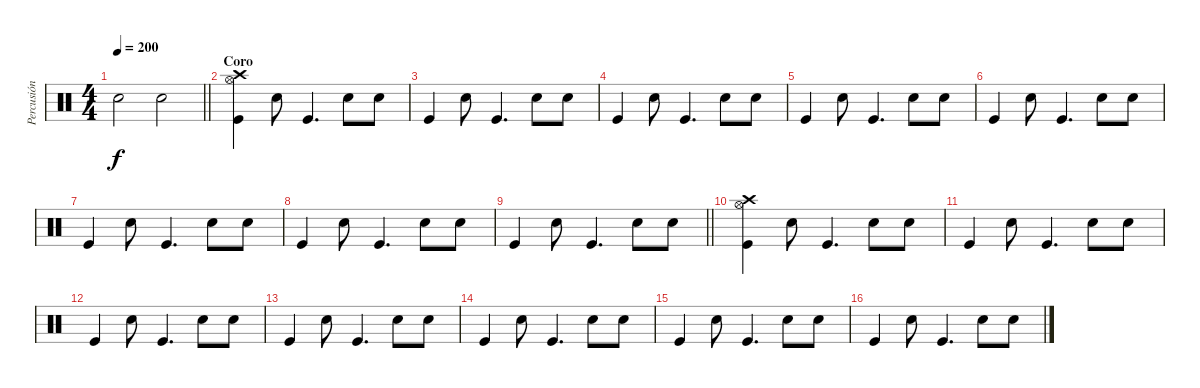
\track ("Percusión" "Percusión") {instrument percussion}
\staff {score}
\articulation defaults
\ts (4 4)
\tempo 200
\clef neutral
\barLineRight lightlight
\ks c "Snare (hit) 2".2{dy f} "Electric Snare (hit)".2
|
\section ("" "Coro")
("Hi-Hat (open)" "Crash high (hit)" "Kick (hit)").4 "Snare (hit) 2".8 "Kick (hit)".4{d} "Snare (hit) 2".8 "Snare (hit) 2".8 |
"Kick (hit)".4 "Snare (hit) 2".8 "Kick (hit)".4{d} "Snare (hit) 2".8 "Snare (hit) 2".8 |
"Kick (hit)".4 "Snare (hit) 2".8 "Kick (hit)".4{d} "Snare (hit) 2".8 "Snare (hit) 2".8 |
"Kick (hit)".4 "Snare (hit) 2".8 "Kick (hit)".4{d} "Snare (hit) 2".8 "Snare (hit) 2".8 |
"Kick (hit)".4 "Snare (hit) 2".8 "Kick (hit)".4{d} "Snare (hit) 2".8 "Snare (hit) 2".8 |
"Kick (hit)".4 "Snare (hit) 2".8 "Kick (hit)".4{d} "Snare (hit) 2".8 "Snare (hit) 2".8 |
"Kick (hit)".4 "Snare (hit) 2".8 "Kick (hit)".4{d} "Snare (hit) 2".8 "Snare (hit) 2".8 |
\barLineRight lightlight "Kick (hit)".4 "Snare (hit) 2".8 "Kick (hit)".4{d} "Snare (hit) 2".8 "Snare (hit) 2".8
|
\section ("" "")
("Hi-Hat (open)" "Crash high (hit)" "Kick (hit)").4 "Snare (hit) 2".8 "Kick (hit)".4{d} "Snare (hit) 2".8 "Snare (hit) 2".8 |
"Kick (hit)".4 "Snare (hit) 2".8 "Kick (hit)".4{d} "Snare (hit) 2".8 "Snare (hit) 2".8 |
"Kick (hit)".4 "Snare (hit) 2".8 "Kick (hit)".4{d} "Snare (hit) 2".8 "Snare (hit) 2".8 |
"Kick (hit)".4 "Snare (hit) 2".8 "Kick (hit)".4{d} "Snare (hit) 2".8 "Snare (hit) 2".8 |
"Kick (hit)".4 "Snare (hit) 2".8 "Kick (hit)".4{d} "Snare (hit) 2".8 "Snare (hit) 2".8 |
"Kick (hit)".4 "Snare (hit) 2".8 "Kick (hit)".4{d} "Snare (hit) 2".8 "Snare (hit) 2".8 |
"Kick (hit)".4 "Snare (hit) 2".8 "Kick (hit)".4{d} "Snare (hit) 2".8 "Snare (hit) 2".8
